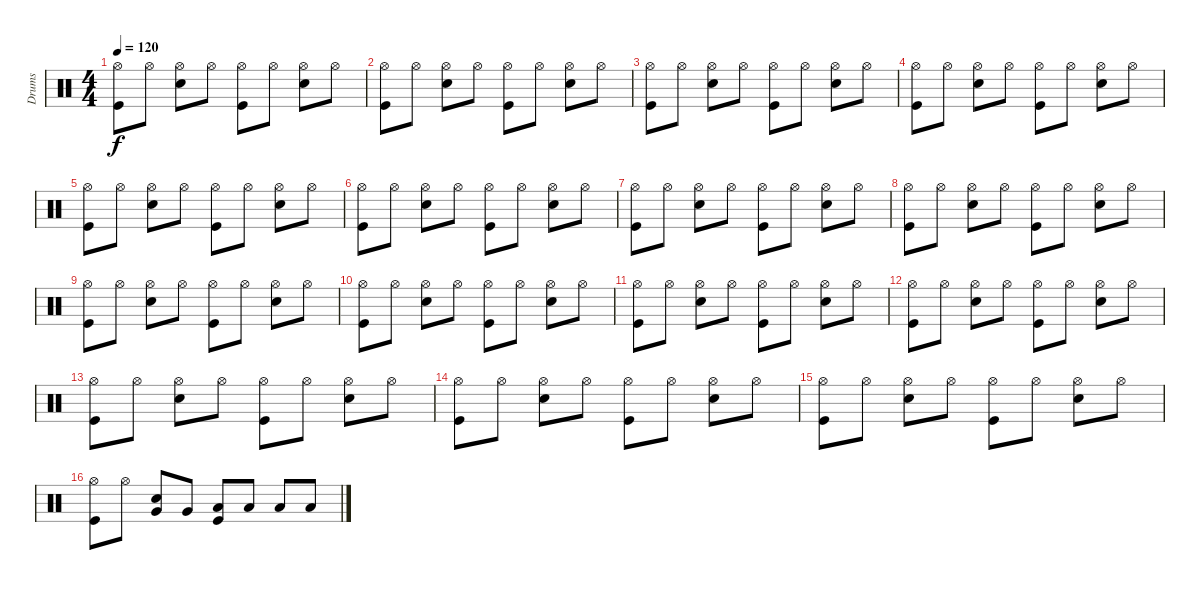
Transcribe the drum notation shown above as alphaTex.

\track ("Drums" "Drums") {instrument percussion}
\staff {score}
\articulation defaults
\ts (4 4)
\tempo 120
\clef neutral
\ks c
("Hi-Hat (open)" "Kick (hit)").8{dy f} "Hi-Hat (open)".8 ("Hi-Hat (open)" "Electric Snare (hit)").8 "Hi-Hat (open)".8 ("Hi-Hat (open)" "Kick (hit)").8 "Hi-Hat (open)".8 ("Hi-Hat (open)" "Electric Snare (hit)").8 "Hi-Hat (open)".8 |
("Hi-Hat (open)" "Kick (hit)").8 "Hi-Hat (open)".8 ("Hi-Hat (open)" "Electric Snare (hit)").8 "Hi-Hat (open)".8 ("Hi-Hat (open)" "Kick (hit)").8 "Hi-Hat (open)".8 ("Hi-Hat (open)" "Electric Snare (hit)").8 "Hi-Hat (open)".8 |
("Hi-Hat (open)" "Kick (hit)").8 "Hi-Hat (open)".8 ("Hi-Hat (open)" "Electric Snare (hit)").8 "Hi-Hat (open)".8 ("Hi-Hat (open)" "Kick (hit)").8 "Hi-Hat (open)".8 ("Hi-Hat (open)" "Electric Snare (hit)").8 "Hi-Hat (open)".8 |
("Hi-Hat (open)" "Kick (hit)").8 "Hi-Hat (open)".8 ("Hi-Hat (open)" "Electric Snare (hit)").8 "Hi-Hat (open)".8 ("Hi-Hat (open)" "Kick (hit)").8 "Hi-Hat (open)".8 ("Hi-Hat (open)" "Electric Snare (hit)").8 "Hi-Hat (open)".8 |
("Hi-Hat (open)" "Kick (hit)").8 "Hi-Hat (open)".8 ("Hi-Hat (open)" "Electric Snare (hit)").8 "Hi-Hat (open)".8 ("Hi-Hat (open)" "Kick (hit)").8 "Hi-Hat (open)".8 ("Hi-Hat (open)" "Electric Snare (hit)").8 "Hi-Hat (open)".8 |
("Hi-Hat (open)" "Kick (hit)").8 "Hi-Hat (open)".8 ("Hi-Hat (open)" "Electric Snare (hit)").8 "Hi-Hat (open)".8 ("Hi-Hat (open)" "Kick (hit)").8 "Hi-Hat (open)".8 ("Hi-Hat (open)" "Electric Snare (hit)").8 "Hi-Hat (open)".8 |
("Hi-Hat (open)" "Kick (hit)").8 "Hi-Hat (open)".8 ("Hi-Hat (open)" "Electric Snare (hit)").8 "Hi-Hat (open)".8 ("Hi-Hat (open)" "Kick (hit)").8 "Hi-Hat (open)".8 ("Hi-Hat (open)" "Electric Snare (hit)").8 "Hi-Hat (open)".8 |
("Hi-Hat (open)" "Kick (hit)").8 "Hi-Hat (open)".8 ("Hi-Hat (open)" "Electric Snare (hit)").8 "Hi-Hat (open)".8 ("Hi-Hat (open)" "Kick (hit)").8 "Hi-Hat (open)".8 ("Hi-Hat (open)" "Electric Snare (hit)").8 "Hi-Hat (open)".8 |
("Hi-Hat (open)" "Kick (hit)").8 "Hi-Hat (open)".8 ("Hi-Hat (open)" "Electric Snare (hit)").8 "Hi-Hat (open)".8 ("Hi-Hat (open)" "Kick (hit)").8 "Hi-Hat (open)".8 ("Hi-Hat (open)" "Electric Snare (hit)").8 "Hi-Hat (open)".8 |
("Hi-Hat (open)" "Kick (hit)").8 "Hi-Hat (open)".8 ("Hi-Hat (open)" "Electric Snare (hit)").8 "Hi-Hat (open)".8 ("Hi-Hat (open)" "Kick (hit)").8 "Hi-Hat (open)".8 ("Hi-Hat (open)" "Electric Snare (hit)").8 "Hi-Hat (open)".8 |
("Hi-Hat (open)" "Kick (hit)").8 "Hi-Hat (open)".8 ("Hi-Hat (open)" "Electric Snare (hit)").8 "Hi-Hat (open)".8 ("Hi-Hat (open)" "Kick (hit)").8 "Hi-Hat (open)".8 ("Hi-Hat (open)" "Electric Snare (hit)").8 "Hi-Hat (open)".8 |
("Hi-Hat (open)" "Kick (hit)").8 "Hi-Hat (open)".8 ("Hi-Hat (open)" "Electric Snare (hit)").8 "Hi-Hat (open)".8 ("Hi-Hat (open)" "Kick (hit)").8 "Hi-Hat (open)".8 ("Hi-Hat (open)" "Electric Snare (hit)").8 "Hi-Hat (open)".8 |
("Hi-Hat (open)" "Kick (hit)").8 "Hi-Hat (open)".8 ("Hi-Hat (open)" "Electric Snare (hit)").8 "Hi-Hat (open)".8 ("Hi-Hat (open)" "Kick (hit)").8 "Hi-Hat (open)".8 ("Hi-Hat (open)" "Electric Snare (hit)").8 "Hi-Hat (open)".8 |
("Hi-Hat (open)" "Kick (hit)").8 "Hi-Hat (open)".8 ("Hi-Hat (open)" "Electric Snare (hit)").8 "Hi-Hat (open)".8 ("Hi-Hat (open)" "Kick (hit)").8 "Hi-Hat (open)".8 ("Hi-Hat (open)" "Electric Snare (hit)").8 "Hi-Hat (open)".8 |
("Hi-Hat (open)" "Kick (hit)").8 "Hi-Hat (open)".8 ("Hi-Hat (open)" "Electric Snare (hit)").8 "Hi-Hat (open)".8 ("Hi-Hat (open)" "Kick (hit)").8 "Hi-Hat (open)".8 ("Hi-Hat (open)" "Electric Snare (hit)").8 "Hi-Hat (open)".8 |
("Hi-Hat (open)" "Kick (hit)").8 "Hi-Hat (open)".8 ("Very Low Tom (hit)" "Electric Snare (hit)").8 "Very Low Tom (hit)".8 ("Low Tom (hit)" "Kick (hit)").8 "Low Floor Tom (hit)".8 "Low Tom (hit)".8 "Low Floor Tom (hit)".8
